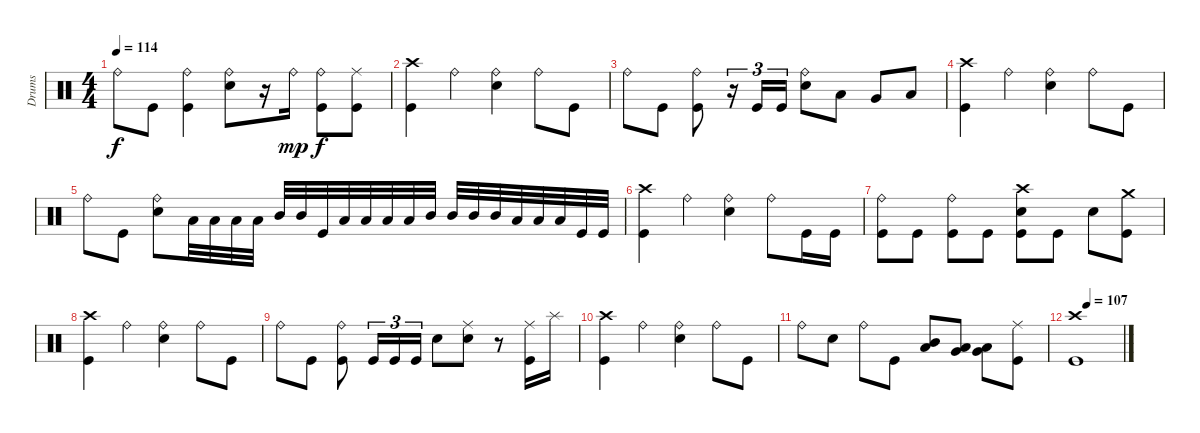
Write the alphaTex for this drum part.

\track ("Drums" "Drums") {instrument percussion}
\staff {score}
\articulation defaults
\ts (4 4)
\tempo 114
\clef neutral
\ks c "Ride (bell)".8{dy f} "Kick (hit)".8
("Ride (bell)" "Kick (hit)").4 ("Ride (bell)" "Electric Snare (hit)").8 r.16 "Ride (bell)".16{dy mp} ("Ride (bell)" "Kick (hit)").8{dy f} ("Ride (middle)" "Kick (hit)").8 |
("Crash high (hit)" "Kick (hit)").4 "Ride (bell)".4 ("Ride (bell)" "Electric Snare (hit)").4 "Ride (bell)".8 "Kick (hit)".8 |
"Ride (bell)".8 "Kick (hit)".8 ("Ride (bell)" "Kick (hit)").8 r.16{tu (3 2)} "Kick (hit)".16{tu (3 2)} "Kick (hit)".16{tu (3 2)} ("Ride (bell)" "Electric Snare (hit)").8 "Low Tom (hit)".8 "Very Low Tom (hit)".8 "Low Floor Tom (hit)".8 |
("Crash high (hit)" "Kick (hit)").4 "Ride (bell)".4 ("Ride (bell)" "Electric Snare (hit)").4 "Ride (bell)".8 "Kick (hit)".8 |
"Ride (bell)".8 "Kick (hit)".8 ("Ride (bell)" "Electric Snare (hit)").8 "Low Tom (hit)".32 "Low Tom (hit)".32 "Low Tom (hit)".32 "Low Tom (hit)".32 "Mid Tom (hit)".32 "Mid Tom (hit)".32 "Kick (hit)".32 "Low Tom (hit)".32 "Low Tom (hit)".32 "Low Tom (hit)".32 "Low Tom (hit)".32 "Mid Tom (hit)".32 "Mid Tom (hit)".32 "Mid Tom (hit)".32 "Mid Tom (hit)".32 "Low Tom (hit)".32 "Low Tom (hit)".32 "Low Tom (hit)".32 "Kick (hit)".32 "Kick (hit)".32 |
("Crash high (hit)" "Kick (hit)").4 "Ride (bell)".4 ("Ride (bell)" "Electric Snare (hit)").4 "Ride (bell)".8 "Kick (hit)".16 "Kick (hit)".16 |
("Ride (bell)" "Kick (hit)").8 "Kick (hit)".8 ("Ride (bell)" "Kick (hit)").8 "Kick (hit)".8 ("Crash high (hit)" "Electric Snare (hit)" "Kick (hit)").8 "Kick (hit)".8 "Electric Snare (hit)".8 ("Crash medium (hit)" "Kick (hit)").8 |
("Crash high (hit)" "Kick (hit)").4 "Ride (bell)".4 ("Ride (bell)" "Electric Snare (hit)").4 "Ride (bell)".8 "Kick (hit)".8 |
"Ride (bell)".8 "Kick (hit)".8 ("Ride (bell)" "Kick (hit)").8 "Kick (hit)".16{tu (3 2)} "Kick (hit)".16{tu (3 2)} "Kick (hit)".16{tu (3 2)} "Electric Snare (hit)".8 ("Ride (middle)" "Electric Snare (hit)").8 r.8 ("Ride (middle)" "Kick (hit)").16 "Splash (hit)".16 |
("Crash high (hit)" "Kick (hit)").4 "Ride (bell)".4 ("Ride (bell)" "Electric Snare (hit)").4 "Ride (bell)".8 "Kick (hit)".8 |
"Ride (bell)".8 "Electric Snare (hit)".8 "Ride (bell)".8 "Kick (hit)".8 ("Mid Tom (hit)" "Low Tom (hit)").8 ("Low Tom (hit)" "Very Low Tom (hit)").8 ("Very Low Tom (hit)" "Low Floor Tom (hit)").8 ("Ride (middle)" "Kick (hit)").8 |
\tempo (107 0.25)
("Crash high (hit)" "Kick (hit)").1
